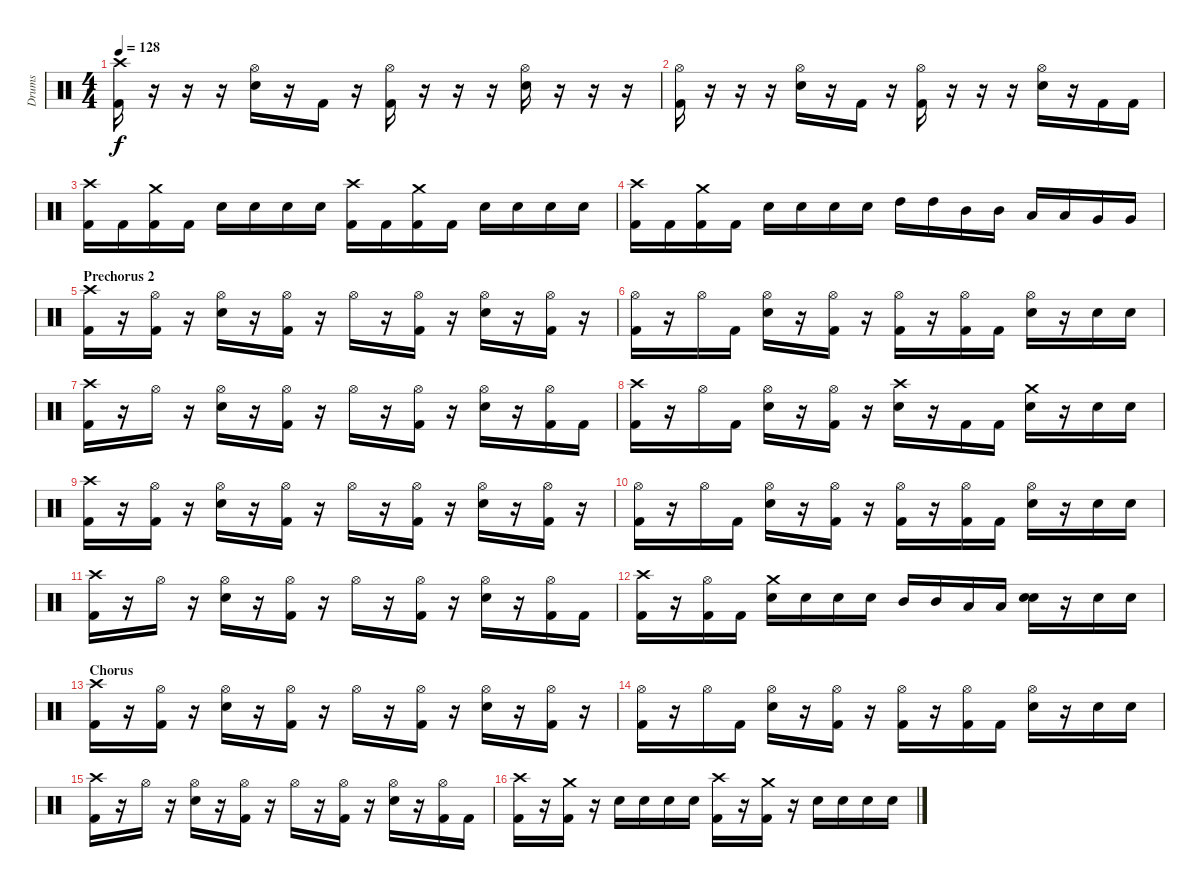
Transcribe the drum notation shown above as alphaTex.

\track ("Drums" "Drums") {instrument percussion}
\staff {score}
\articulation defaults
\ts (4 4)
\tempo 128
\clef neutral
\ks c
("Crash high (hit)" "Kick (hit) 2").16{dy f} r.16 r.16 r.16 ("Hi-Hat (open)" "Snare (hit) 2").16 r.16 "Kick (hit) 2".16 r.16 ("Hi-Hat (open)" "Kick (hit) 2").16 r.16 r.16 r.16 ("Hi-Hat (open)" "Snare (hit) 2").16 r.16 r.16 r.16 |
("Hi-Hat (open)" "Kick (hit) 2").16 r.16 r.16 r.16 ("Hi-Hat (open)" "Snare (hit) 2").16 r.16 "Kick (hit) 2".16 r.16 ("Hi-Hat (open)" "Kick (hit) 2").16 r.16 r.16 r.16 ("Hi-Hat (open)" "Snare (hit) 2").16 r.16 "Kick (hit) 2".16 "Kick (hit) 2".16 |
("Crash high (hit)" "Kick (hit) 2").16 "Kick (hit) 2".16 ("Crash medium (hit)" "Kick (hit) 2").16 "Kick (hit) 2".16 "Snare (hit) 2".16 "Snare (hit) 2".16 "Snare (hit) 2".16 "Snare (hit) 2".16 ("Crash high (hit)" "Kick (hit) 2").16 "Kick (hit) 2".16 ("Crash medium (hit)" "Kick (hit) 2").16 "Kick (hit) 2".16 "Snare (hit) 2".16 "Snare (hit) 2".16 "Snare (hit) 2".16 "Snare (hit) 2".16 |
("Crash high (hit)" "Kick (hit) 2").16 "Kick (hit) 2".16 ("Crash medium (hit)" "Kick (hit) 2").16 "Kick (hit) 2".16 "Snare (hit) 2".16 "Snare (hit) 2".16 "Snare (hit) 2".16 "Snare (hit) 2".16 "High Tom (hit)".16 "High Tom (hit)".16 "Mid Tom (hit)".16 "Mid Tom (hit)".16 "Low Tom (hit)".16 "Low Tom (hit)".16 "Very Low Tom (hit)".16 "Very Low Tom (hit)".16 |
\section ("" "Prechorus 2")
("Crash high (hit)" "Kick (hit) 2").16 r.16 ("Hi-Hat (open)" "Kick (hit) 2").16 r.16 ("Hi-Hat (open)" "Snare (hit) 2").16 r.16 ("Hi-Hat (open)" "Kick (hit) 2").16 r.16 "Hi-Hat (open)".16 r.16 ("Hi-Hat (open)" "Kick (hit) 2").16 r.16 ("Hi-Hat (open)" "Snare (hit) 2").16 r.16 ("Hi-Hat (open)" "Kick (hit) 2").16 r.16 |
("Hi-Hat (open)" "Kick (hit) 2").16 r.16 "Hi-Hat (open)".16 "Kick (hit) 2".16 ("Hi-Hat (open)" "Snare (hit) 2").16 r.16 ("Hi-Hat (open)" "Kick (hit) 2").16 r.16 ("Hi-Hat (open)" "Kick (hit) 2").16 r.16 ("Hi-Hat (open)" "Kick (hit) 2").16 "Kick (hit) 2".16 ("Hi-Hat (open)" "Snare (hit) 2").16 r.16 "Snare (hit) 2".16 "Snare (hit) 2".16 |
("Crash high (hit)" "Kick (hit) 2").16 r.16 "Hi-Hat (open)".16 r.16 ("Hi-Hat (open)" "Snare (hit) 2").16 r.16 ("Hi-Hat (open)" "Kick (hit) 2").16 r.16 "Hi-Hat (open)".16 r.16 ("Hi-Hat (open)" "Kick (hit) 2").16 r.16 ("Hi-Hat (open)" "Snare (hit) 2").16 r.16 ("Hi-Hat (open)" "Kick (hit) 2").16 "Kick (hit) 2".16 |
("Crash high (hit)" "Kick (hit) 2").16 r.16 "Hi-Hat (open)".16 "Kick (hit) 2".16 ("Hi-Hat (open)" "Snare (hit) 2").16 r.16 ("Hi-Hat (open)" "Kick (hit) 2").16 r.16 ("Crash high (hit)" "Snare (hit) 2").16 r.16 "Kick (hit) 2".16 "Kick (hit) 2".16 ("Crash medium (hit)" "Snare (hit) 2").16 r.16 "Snare (hit) 2".16 "Snare (hit) 2".16 |
("Crash high (hit)" "Kick (hit) 2").16 r.16 ("Hi-Hat (open)" "Kick (hit) 2").16 r.16 ("Hi-Hat (open)" "Snare (hit) 2").16 r.16 ("Hi-Hat (open)" "Kick (hit) 2").16 r.16 "Hi-Hat (open)".16 r.16 ("Hi-Hat (open)" "Kick (hit) 2").16 r.16 ("Hi-Hat (open)" "Snare (hit) 2").16 r.16 ("Hi-Hat (open)" "Kick (hit) 2").16 r.16 |
("Hi-Hat (open)" "Kick (hit) 2").16 r.16 "Hi-Hat (open)".16 "Kick (hit) 2".16 ("Hi-Hat (open)" "Snare (hit) 2").16 r.16 ("Hi-Hat (open)" "Kick (hit) 2").16 r.16 ("Hi-Hat (open)" "Kick (hit) 2").16 r.16 ("Hi-Hat (open)" "Kick (hit) 2").16 "Kick (hit) 2".16 ("Hi-Hat (open)" "Snare (hit) 2").16 r.16 "Snare (hit) 2".16 "Snare (hit) 2".16 |
("Crash high (hit)" "Kick (hit) 2").16 r.16 "Hi-Hat (open)".16 r.16 ("Hi-Hat (open)" "Snare (hit) 2").16 r.16 ("Hi-Hat (open)" "Kick (hit) 2").16 r.16 "Hi-Hat (open)".16 r.16 ("Hi-Hat (open)" "Kick (hit) 2").16 r.16 ("Hi-Hat (open)" "Snare (hit) 2").16 r.16 ("Hi-Hat (open)" "Kick (hit) 2").16 "Kick (hit) 2".16 |
("Crash high (hit)" "Kick (hit) 2").16 r.16 ("Hi-Hat (open)" "Kick (hit) 2").16 "Kick (hit) 2".16 ("Crash medium (hit)" "Snare (hit) 2").16 "Snare (hit) 2".16 "Snare (hit) 2".16 "Snare (hit) 2".16 "Mid Tom (hit)".16 "Mid Tom (hit)".16 "Low Tom (hit)".16 "Low Tom (hit)".16 ("Snare (hit) 2" "Snare (hit) 2").16{bd 120} r.16 "Snare (hit) 2".16 "Snare (hit) 2".16 |
\section ("" "Chorus")
("Crash high (hit)" "Kick (hit) 2").16 r.16 ("Hi-Hat (open)" "Kick (hit) 2").16 r.16 ("Hi-Hat (open)" "Snare (hit) 2").16 r.16 ("Hi-Hat (open)" "Kick (hit) 2").16 r.16 "Hi-Hat (open)".16 r.16 ("Hi-Hat (open)" "Kick (hit) 2").16 r.16 ("Hi-Hat (open)" "Snare (hit) 2").16 r.16 ("Hi-Hat (open)" "Kick (hit) 2").16 r.16 |
("Hi-Hat (open)" "Kick (hit) 2").16 r.16 "Hi-Hat (open)".16 "Kick (hit) 2".16 ("Hi-Hat (open)" "Snare (hit) 2").16 r.16 ("Hi-Hat (open)" "Kick (hit) 2").16 r.16 ("Hi-Hat (open)" "Kick (hit) 2").16 r.16 ("Hi-Hat (open)" "Kick (hit) 2").16 "Kick (hit) 2".16 ("Hi-Hat (open)" "Snare (hit) 2").16 r.16 "Snare (hit) 2".16 "Snare (hit) 2".16 |
("Crash high (hit)" "Kick (hit) 2").16 r.16 "Hi-Hat (open)".16 r.16 ("Hi-Hat (open)" "Snare (hit) 2").16 r.16 ("Hi-Hat (open)" "Kick (hit) 2").16 r.16 "Hi-Hat (open)".16 r.16 ("Hi-Hat (open)" "Kick (hit) 2").16 r.16 ("Hi-Hat (open)" "Snare (hit) 2").16 r.16 ("Hi-Hat (open)" "Kick (hit) 2").16 "Kick (hit) 2".16 |
("Crash high (hit)" "Kick (hit) 2").16 r.16 ("Crash medium (hit)" "Kick (hit) 2").16 r.16 "Snare (hit) 2".16 "Snare (hit) 2".16 "Snare (hit) 2".16 "Snare (hit) 2".16 ("Crash high (hit)" "Kick (hit) 2").16 r.16 ("Crash medium (hit)" "Kick (hit) 2").16 r.16 "Snare (hit) 2".16 "Snare (hit) 2".16 "Snare (hit) 2".16 "Snare (hit) 2".16
